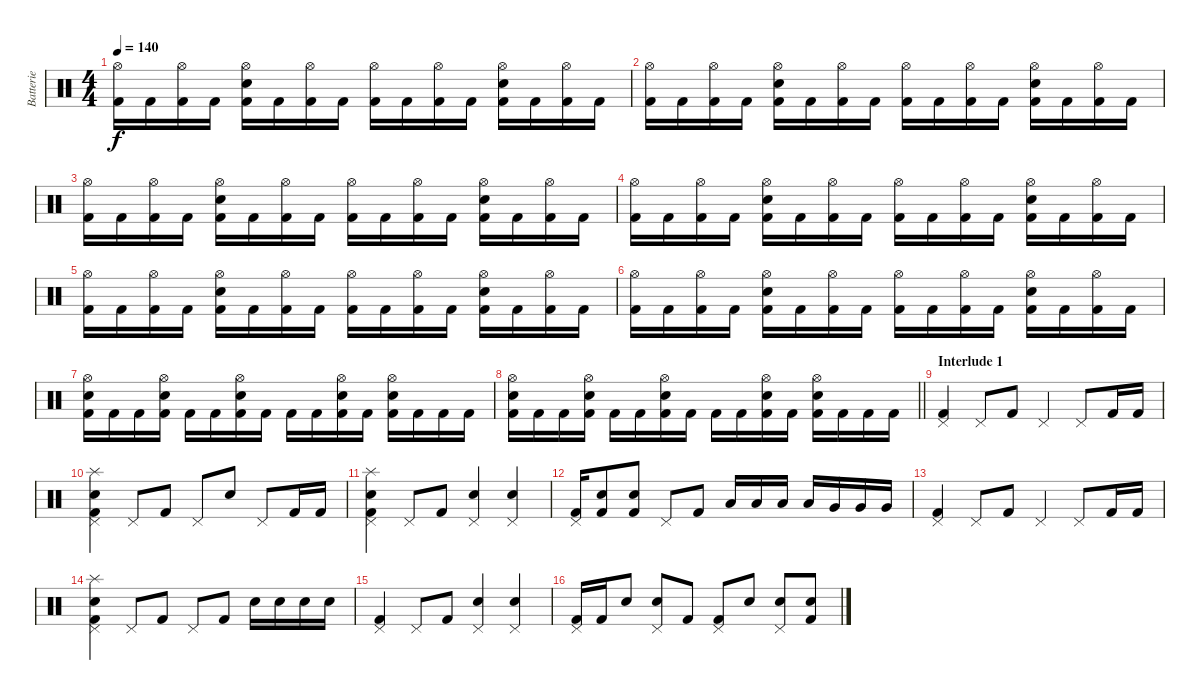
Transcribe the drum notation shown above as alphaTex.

\track ("Batterie" "Batterie") {instrument percussion}
\staff {score}
\articulation defaults
\ts (4 4)
\tempo 140
\clef neutral
\ks c
("Hi-Hat (open)" "Kick (hit) 2").16{dy f} "Kick (hit) 2".16 ("Hi-Hat (open)" "Kick (hit) 2").16 "Kick (hit) 2".16 ("Hi-Hat (open)" "Electric Snare (hit)" "Kick (hit) 2").16 "Kick (hit) 2".16 ("Hi-Hat (open)" "Kick (hit) 2").16 "Kick (hit) 2".16 ("Hi-Hat (open)" "Kick (hit) 2").16 "Kick (hit) 2".16 ("Hi-Hat (open)" "Kick (hit) 2").16 "Kick (hit) 2".16 ("Hi-Hat (open)" "Electric Snare (hit)" "Kick (hit) 2").16 "Kick (hit) 2".16 ("Hi-Hat (open)" "Kick (hit) 2").16 "Kick (hit) 2".16 |
("Hi-Hat (open)" "Kick (hit) 2").16 "Kick (hit) 2".16 ("Hi-Hat (open)" "Kick (hit) 2").16 "Kick (hit) 2".16 ("Hi-Hat (open)" "Electric Snare (hit)" "Kick (hit) 2").16 "Kick (hit) 2".16 ("Hi-Hat (open)" "Kick (hit) 2").16 "Kick (hit) 2".16 ("Hi-Hat (open)" "Kick (hit) 2").16 "Kick (hit) 2".16 ("Hi-Hat (open)" "Kick (hit) 2").16 "Kick (hit) 2".16 ("Hi-Hat (open)" "Electric Snare (hit)" "Kick (hit) 2").16 "Kick (hit) 2".16 ("Hi-Hat (open)" "Kick (hit) 2").16 "Kick (hit) 2".16 |
("Hi-Hat (open)" "Kick (hit) 2").16 "Kick (hit) 2".16 ("Hi-Hat (open)" "Kick (hit) 2").16 "Kick (hit) 2".16 ("Hi-Hat (open)" "Electric Snare (hit)" "Kick (hit) 2").16 "Kick (hit) 2".16 ("Hi-Hat (open)" "Kick (hit) 2").16 "Kick (hit) 2".16 ("Hi-Hat (open)" "Kick (hit) 2").16 "Kick (hit) 2".16 ("Hi-Hat (open)" "Kick (hit) 2").16 "Kick (hit) 2".16 ("Hi-Hat (open)" "Electric Snare (hit)" "Kick (hit) 2").16 "Kick (hit) 2".16 ("Hi-Hat (open)" "Kick (hit) 2").16 "Kick (hit) 2".16 |
("Hi-Hat (open)" "Kick (hit) 2").16 "Kick (hit) 2".16 ("Hi-Hat (open)" "Kick (hit) 2").16 "Kick (hit) 2".16 ("Hi-Hat (open)" "Electric Snare (hit)" "Kick (hit) 2").16 "Kick (hit) 2".16 ("Hi-Hat (open)" "Kick (hit) 2").16 "Kick (hit) 2".16 ("Hi-Hat (open)" "Kick (hit) 2").16 "Kick (hit) 2".16 ("Hi-Hat (open)" "Kick (hit) 2").16 "Kick (hit) 2".16 ("Hi-Hat (open)" "Electric Snare (hit)" "Kick (hit) 2").16 "Kick (hit) 2".16 ("Hi-Hat (open)" "Kick (hit) 2").16 "Kick (hit) 2".16 |
("Hi-Hat (open)" "Kick (hit) 2").16 "Kick (hit) 2".16 ("Hi-Hat (open)" "Kick (hit) 2").16 "Kick (hit) 2".16 ("Hi-Hat (open)" "Electric Snare (hit)" "Kick (hit) 2").16 "Kick (hit) 2".16 ("Hi-Hat (open)" "Kick (hit) 2").16 "Kick (hit) 2".16 ("Hi-Hat (open)" "Kick (hit) 2").16 "Kick (hit) 2".16 ("Hi-Hat (open)" "Kick (hit) 2").16 "Kick (hit) 2".16 ("Hi-Hat (open)" "Electric Snare (hit)" "Kick (hit) 2").16 "Kick (hit) 2".16 ("Hi-Hat (open)" "Kick (hit) 2").16 "Kick (hit) 2".16 |
("Hi-Hat (open)" "Kick (hit) 2").16 "Kick (hit) 2".16 ("Hi-Hat (open)" "Kick (hit) 2").16 "Kick (hit) 2".16 ("Hi-Hat (open)" "Electric Snare (hit)" "Kick (hit) 2").16 "Kick (hit) 2".16 ("Hi-Hat (open)" "Kick (hit) 2").16 "Kick (hit) 2".16 ("Hi-Hat (open)" "Kick (hit) 2").16 "Kick (hit) 2".16 ("Hi-Hat (open)" "Kick (hit) 2").16 "Kick (hit) 2".16 ("Hi-Hat (open)" "Electric Snare (hit)" "Kick (hit) 2").16 "Kick (hit) 2".16 ("Hi-Hat (open)" "Kick (hit) 2").16 "Kick (hit) 2".16 |
("Hi-Hat (open)" "Electric Snare (hit)" "Kick (hit) 2").16 "Kick (hit) 2".16 "Kick (hit) 2".16 ("Hi-Hat (open)" "Electric Snare (hit)" "Kick (hit) 2").16 "Kick (hit) 2".16 "Kick (hit) 2".16 ("Hi-Hat (open)" "Electric Snare (hit)" "Kick (hit) 2").16 "Kick (hit) 2".16 "Kick (hit) 2".16 "Kick (hit) 2".16 ("Hi-Hat (open)" "Electric Snare (hit)" "Kick (hit) 2").16 "Kick (hit) 2".16 ("Hi-Hat (open)" "Electric Snare (hit)" "Kick (hit) 2").16 "Kick (hit) 2".16 "Kick (hit) 2".16 "Kick (hit) 2".16 |
\barLineRight lightlight
("Hi-Hat (open)" "Electric Snare (hit)" "Kick (hit) 2").16 "Kick (hit) 2".16 "Kick (hit) 2".16 ("Hi-Hat (open)" "Electric Snare (hit)" "Kick (hit) 2").16 "Kick (hit) 2".16 "Kick (hit) 2".16 ("Hi-Hat (open)" "Electric Snare (hit)" "Kick (hit) 2").16 "Kick (hit) 2".16 "Kick (hit) 2".16 "Kick (hit) 2".16 ("Hi-Hat (open)" "Electric Snare (hit)" "Kick (hit) 2").16 "Kick (hit) 2".16 ("Hi-Hat (open)" "Electric Snare (hit)" "Kick (hit) 2").16 "Kick (hit) 2".16 "Kick (hit) 2".16 "Kick (hit) 2".16 |
\section ("" "Interlude 1")
("Pedal Hi-Hat (hit)" "Kick (hit) 2").4 "Pedal Hi-Hat (hit)".8 "Kick (hit) 2".8 "Pedal Hi-Hat (hit)".4 "Pedal Hi-Hat (hit)".8 "Kick (hit) 2".16 "Kick (hit) 2".16 |
("Pedal Hi-Hat (hit)" "Splash (hit)" "Electric Snare (hit)" "Kick (hit) 2").4 "Pedal Hi-Hat (hit)".8 "Kick (hit) 2".8 "Pedal Hi-Hat (hit)".8 "Electric Snare (hit)".8 "Pedal Hi-Hat (hit)".8 "Kick (hit) 2".16 "Kick (hit) 2".16 |
("Pedal Hi-Hat (hit)" "Splash (hit)" "Electric Snare (hit)" "Kick (hit) 2").4 "Pedal Hi-Hat (hit)".8 "Kick (hit) 2".8 ("Pedal Hi-Hat (hit)" "Electric Snare (hit)").4 ("Pedal Hi-Hat (hit)" "Electric Snare (hit)").4 |
("Pedal Hi-Hat (hit)" "Kick (hit) 2").16 ("Electric Snare (hit)" "Kick (hit) 2").8 ("Electric Snare (hit)" "Kick (hit) 2").8 "Pedal Hi-Hat (hit)".8 "Kick (hit) 2".8 "Low Tom (hit)".16 "Low Tom (hit)".16 "Low Tom (hit)".16 "Low Tom (hit)".16 "Very Low Tom (hit)".16 "Very Low Tom (hit)".16 "Very Low Tom (hit)".16 |
("Pedal Hi-Hat (hit)" "Kick (hit) 2").4 "Pedal Hi-Hat (hit)".8 "Kick (hit) 2".8 "Pedal Hi-Hat (hit)".4 "Pedal Hi-Hat (hit)".8 "Kick (hit) 2".16 "Kick (hit) 2".16 |
("Pedal Hi-Hat (hit)" "Splash (hit)" "Electric Snare (hit)" "Kick (hit) 2").4 "Pedal Hi-Hat (hit)".8 "Kick (hit) 2".8 "Pedal Hi-Hat (hit)".8 "Kick (hit) 2".8 "Electric Snare (hit)".16 "Electric Snare (hit)".16 "Electric Snare (hit)".16 "Electric Snare (hit)".16 |
("Pedal Hi-Hat (hit)" "Kick (hit) 2").4 "Pedal Hi-Hat (hit)".8 "Kick (hit) 2".8 ("Pedal Hi-Hat (hit)" "Electric Snare (hit)").4 ("Pedal Hi-Hat (hit)" "Electric Snare (hit)").4 |
("Pedal Hi-Hat (hit)" "Kick (hit) 2").16 "Kick (hit) 2".16 "Electric Snare (hit)".8 ("Pedal Hi-Hat (hit)" "Electric Snare (hit)").8 "Kick (hit) 2".8 ("Pedal Hi-Hat (hit)" "Kick (hit) 2").8 "Electric Snare (hit)".8 ("Pedal Hi-Hat (hit)" "Electric Snare (hit)").8 ("Electric Snare (hit)" "Kick (hit) 2").8
